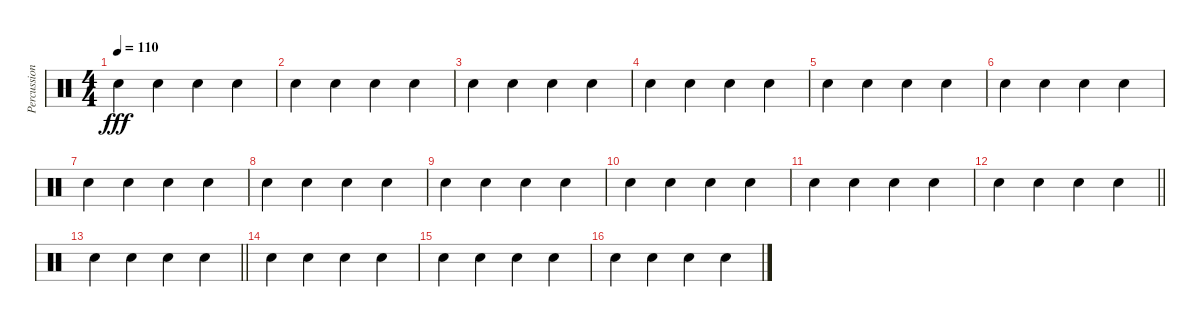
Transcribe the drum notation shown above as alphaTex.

\track ("Percussion" "Percussion") {mute instrument percussion}
\staff {score}
\articulation defaults
\ts (4 4)
\tempo 110
\clef neutral
\ks c "Snare (hit) 2".4{dy fff} "Snare (hit) 2".4 "Snare (hit) 2".4 "Snare (hit) 2".4
|
"Snare (hit) 2".4 "Snare (hit) 2".4 "Snare (hit) 2".4 "Snare (hit) 2".4 |
"Snare (hit) 2".4 "Snare (hit) 2".4 "Snare (hit) 2".4 "Snare (hit) 2".4 |
"Snare (hit) 2".4 "Snare (hit) 2".4 "Snare (hit) 2".4 "Snare (hit) 2".4 |
"Snare (hit) 2".4 "Snare (hit) 2".4 "Snare (hit) 2".4 "Snare (hit) 2".4 |
"Snare (hit) 2".4 "Snare (hit) 2".4 "Snare (hit) 2".4 "Snare (hit) 2".4 |
"Snare (hit) 2".4 "Snare (hit) 2".4 "Snare (hit) 2".4 "Snare (hit) 2".4 |
"Snare (hit) 2".4 "Snare (hit) 2".4 "Snare (hit) 2".4 "Snare (hit) 2".4 |
"Snare (hit) 2".4 "Snare (hit) 2".4 "Snare (hit) 2".4 "Snare (hit) 2".4 |
"Snare (hit) 2".4 "Snare (hit) 2".4 "Snare (hit) 2".4 "Snare (hit) 2".4 |
"Snare (hit) 2".4 "Snare (hit) 2".4 "Snare (hit) 2".4 "Snare (hit) 2".4 |
\barLineRight lightlight "Snare (hit) 2".4 "Snare (hit) 2".4 "Snare (hit) 2".4 "Snare (hit) 2".4
|
\barLineRight lightlight "Snare (hit) 2".4 "Snare (hit) 2".4 "Snare (hit) 2".4 "Snare (hit) 2".4
|
"Snare (hit) 2".4 "Snare (hit) 2".4 "Snare (hit) 2".4 "Snare (hit) 2".4 |
"Snare (hit) 2".4 "Snare (hit) 2".4 "Snare (hit) 2".4 "Snare (hit) 2".4 |
"Snare (hit) 2".4 "Snare (hit) 2".4 "Snare (hit) 2".4 "Snare (hit) 2".4
